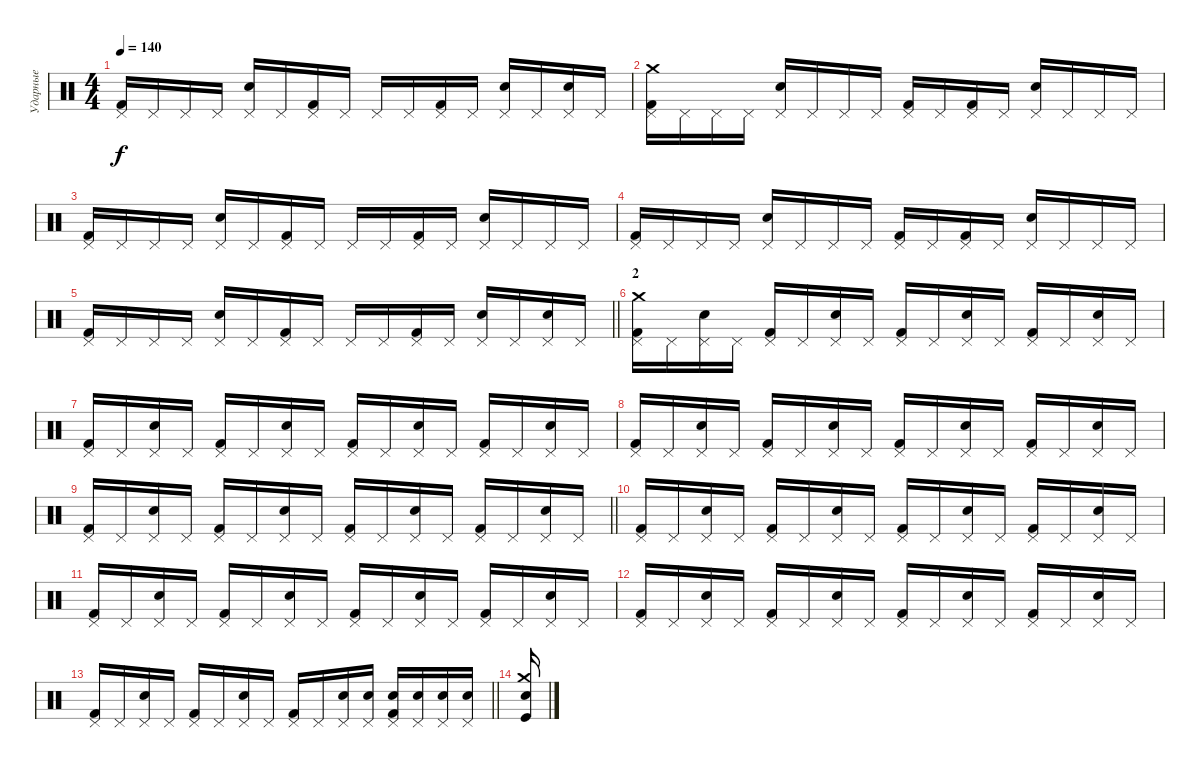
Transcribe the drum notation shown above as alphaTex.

\track ("Ударные" "Ударные") {instrument percussion}
\staff {score}
\articulation defaults
\ts (4 4)
\tempo 140
\clef neutral
\ks c
("Pedal Hi-Hat (hit)" "Kick (hit) 2").16{dy f} "Pedal Hi-Hat (hit)".16 "Pedal Hi-Hat (hit)".16 "Pedal Hi-Hat (hit)".16 ("Pedal Hi-Hat (hit)" "Electric Snare (hit)").16 "Pedal Hi-Hat (hit)".16 ("Pedal Hi-Hat (hit)" "Kick (hit) 2").16 "Pedal Hi-Hat (hit)".16 "Pedal Hi-Hat (hit)".16 "Pedal Hi-Hat (hit)".16 ("Pedal Hi-Hat (hit)" "Kick (hit) 2").16 "Pedal Hi-Hat (hit)".16 ("Pedal Hi-Hat (hit)" "Electric Snare (hit)").16 "Pedal Hi-Hat (hit)".16 ("Pedal Hi-Hat (hit)" "Electric Snare (hit)").16 "Pedal Hi-Hat (hit)".16 |
("Pedal Hi-Hat (hit)" "Kick (hit) 2" "Crash medium (hit)").16 "Pedal Hi-Hat (hit)".16 "Pedal Hi-Hat (hit)".16 "Pedal Hi-Hat (hit)".16 ("Pedal Hi-Hat (hit)" "Electric Snare (hit)").16 "Pedal Hi-Hat (hit)".16 "Pedal Hi-Hat (hit)".16 "Pedal Hi-Hat (hit)".16 ("Pedal Hi-Hat (hit)" "Kick (hit) 2").16 "Pedal Hi-Hat (hit)".16 ("Pedal Hi-Hat (hit)" "Kick (hit) 2").16 "Pedal Hi-Hat (hit)".16 ("Pedal Hi-Hat (hit)" "Electric Snare (hit)").16 "Pedal Hi-Hat (hit)".16 "Pedal Hi-Hat (hit)".16 "Pedal Hi-Hat (hit)".16 |
("Pedal Hi-Hat (hit)" "Kick (hit) 2").16 "Pedal Hi-Hat (hit)".16 "Pedal Hi-Hat (hit)".16 "Pedal Hi-Hat (hit)".16 ("Pedal Hi-Hat (hit)" "Electric Snare (hit)").16 "Pedal Hi-Hat (hit)".16 ("Pedal Hi-Hat (hit)" "Kick (hit) 2").16 "Pedal Hi-Hat (hit)".16 "Pedal Hi-Hat (hit)".16 "Pedal Hi-Hat (hit)".16 ("Pedal Hi-Hat (hit)" "Kick (hit) 2").16 "Pedal Hi-Hat (hit)".16 ("Pedal Hi-Hat (hit)" "Electric Snare (hit)").16 "Pedal Hi-Hat (hit)".16 "Pedal Hi-Hat (hit)".16 "Pedal Hi-Hat (hit)".16 |
("Pedal Hi-Hat (hit)" "Kick (hit) 2").16 "Pedal Hi-Hat (hit)".16 "Pedal Hi-Hat (hit)".16 "Pedal Hi-Hat (hit)".16 ("Pedal Hi-Hat (hit)" "Electric Snare (hit)").16 "Pedal Hi-Hat (hit)".16 "Pedal Hi-Hat (hit)".16 "Pedal Hi-Hat (hit)".16 ("Pedal Hi-Hat (hit)" "Kick (hit) 2").16 "Pedal Hi-Hat (hit)".16 ("Pedal Hi-Hat (hit)" "Kick (hit) 2").16 "Pedal Hi-Hat (hit)".16 ("Pedal Hi-Hat (hit)" "Electric Snare (hit)").16 "Pedal Hi-Hat (hit)".16 "Pedal Hi-Hat (hit)".16 "Pedal Hi-Hat (hit)".16 |
\barLineRight lightlight
("Pedal Hi-Hat (hit)" "Kick (hit) 2").16 "Pedal Hi-Hat (hit)".16 "Pedal Hi-Hat (hit)".16 "Pedal Hi-Hat (hit)".16 ("Pedal Hi-Hat (hit)" "Electric Snare (hit)").16 "Pedal Hi-Hat (hit)".16 ("Pedal Hi-Hat (hit)" "Kick (hit) 2").16 "Pedal Hi-Hat (hit)".16 "Pedal Hi-Hat (hit)".16 "Pedal Hi-Hat (hit)".16 ("Pedal Hi-Hat (hit)" "Kick (hit) 2").16 "Pedal Hi-Hat (hit)".16 ("Pedal Hi-Hat (hit)" "Electric Snare (hit)").16 "Pedal Hi-Hat (hit)".16 ("Pedal Hi-Hat (hit)" "Electric Snare (hit)").16 "Pedal Hi-Hat (hit)".16 |
\section ("" "2")
("Pedal Hi-Hat (hit)" "Crash medium (hit)" "Kick (hit) 2").16 "Pedal Hi-Hat (hit)".16 ("Pedal Hi-Hat (hit)" "Electric Snare (hit)").16 "Pedal Hi-Hat (hit)".16 ("Pedal Hi-Hat (hit)" "Kick (hit) 2").16 "Pedal Hi-Hat (hit)".16 ("Pedal Hi-Hat (hit)" "Electric Snare (hit)").16 "Pedal Hi-Hat (hit)".16 ("Pedal Hi-Hat (hit)" "Kick (hit) 2").16 "Pedal Hi-Hat (hit)".16 ("Pedal Hi-Hat (hit)" "Electric Snare (hit)").16 "Pedal Hi-Hat (hit)".16 ("Pedal Hi-Hat (hit)" "Kick (hit) 2").16 "Pedal Hi-Hat (hit)".16 ("Pedal Hi-Hat (hit)" "Electric Snare (hit)").16 "Pedal Hi-Hat (hit)".16 |
("Pedal Hi-Hat (hit)" "Kick (hit) 2").16 "Pedal Hi-Hat (hit)".16 ("Pedal Hi-Hat (hit)" "Electric Snare (hit)").16 "Pedal Hi-Hat (hit)".16 ("Pedal Hi-Hat (hit)" "Kick (hit) 2").16 "Pedal Hi-Hat (hit)".16 ("Pedal Hi-Hat (hit)" "Electric Snare (hit)").16 "Pedal Hi-Hat (hit)".16 ("Pedal Hi-Hat (hit)" "Kick (hit) 2").16 "Pedal Hi-Hat (hit)".16 ("Pedal Hi-Hat (hit)" "Electric Snare (hit)").16 "Pedal Hi-Hat (hit)".16 ("Pedal Hi-Hat (hit)" "Kick (hit) 2").16 "Pedal Hi-Hat (hit)".16 ("Pedal Hi-Hat (hit)" "Electric Snare (hit)").16 "Pedal Hi-Hat (hit)".16 |
("Pedal Hi-Hat (hit)" "Kick (hit) 2").16 "Pedal Hi-Hat (hit)".16 ("Pedal Hi-Hat (hit)" "Electric Snare (hit)").16 "Pedal Hi-Hat (hit)".16 ("Pedal Hi-Hat (hit)" "Kick (hit) 2").16 "Pedal Hi-Hat (hit)".16 ("Pedal Hi-Hat (hit)" "Electric Snare (hit)").16 "Pedal Hi-Hat (hit)".16 ("Pedal Hi-Hat (hit)" "Kick (hit) 2").16 "Pedal Hi-Hat (hit)".16 ("Pedal Hi-Hat (hit)" "Electric Snare (hit)").16 "Pedal Hi-Hat (hit)".16 ("Pedal Hi-Hat (hit)" "Kick (hit) 2").16 "Pedal Hi-Hat (hit)".16 ("Pedal Hi-Hat (hit)" "Electric Snare (hit)").16 "Pedal Hi-Hat (hit)".16 |
\barLineRight lightlight
("Pedal Hi-Hat (hit)" "Kick (hit) 2").16 "Pedal Hi-Hat (hit)".16 ("Pedal Hi-Hat (hit)" "Electric Snare (hit)").16 "Pedal Hi-Hat (hit)".16 ("Pedal Hi-Hat (hit)" "Kick (hit) 2").16 "Pedal Hi-Hat (hit)".16 ("Pedal Hi-Hat (hit)" "Electric Snare (hit)").16 "Pedal Hi-Hat (hit)".16 ("Pedal Hi-Hat (hit)" "Kick (hit) 2").16 "Pedal Hi-Hat (hit)".16 ("Pedal Hi-Hat (hit)" "Electric Snare (hit)").16 "Pedal Hi-Hat (hit)".16 ("Pedal Hi-Hat (hit)" "Kick (hit) 2").16 "Pedal Hi-Hat (hit)".16 ("Pedal Hi-Hat (hit)" "Electric Snare (hit)").16 "Pedal Hi-Hat (hit)".16 |
("Pedal Hi-Hat (hit)" "Kick (hit) 2").16 "Pedal Hi-Hat (hit)".16 ("Pedal Hi-Hat (hit)" "Electric Snare (hit)").16 "Pedal Hi-Hat (hit)".16 ("Pedal Hi-Hat (hit)" "Kick (hit) 2").16 "Pedal Hi-Hat (hit)".16 ("Pedal Hi-Hat (hit)" "Electric Snare (hit)").16 "Pedal Hi-Hat (hit)".16 ("Pedal Hi-Hat (hit)" "Kick (hit) 2").16 "Pedal Hi-Hat (hit)".16 ("Pedal Hi-Hat (hit)" "Electric Snare (hit)").16 "Pedal Hi-Hat (hit)".16 ("Pedal Hi-Hat (hit)" "Kick (hit) 2").16 "Pedal Hi-Hat (hit)".16 ("Pedal Hi-Hat (hit)" "Electric Snare (hit)").16 "Pedal Hi-Hat (hit)".16 |
("Pedal Hi-Hat (hit)" "Kick (hit) 2").16 "Pedal Hi-Hat (hit)".16 ("Pedal Hi-Hat (hit)" "Electric Snare (hit)").16 "Pedal Hi-Hat (hit)".16 ("Pedal Hi-Hat (hit)" "Kick (hit) 2").16 "Pedal Hi-Hat (hit)".16 ("Pedal Hi-Hat (hit)" "Electric Snare (hit)").16 "Pedal Hi-Hat (hit)".16 ("Pedal Hi-Hat (hit)" "Kick (hit) 2").16 "Pedal Hi-Hat (hit)".16 ("Pedal Hi-Hat (hit)" "Electric Snare (hit)").16 "Pedal Hi-Hat (hit)".16 ("Pedal Hi-Hat (hit)" "Kick (hit) 2").16 "Pedal Hi-Hat (hit)".16 ("Pedal Hi-Hat (hit)" "Electric Snare (hit)").16 "Pedal Hi-Hat (hit)".16 |
("Pedal Hi-Hat (hit)" "Kick (hit) 2").16 "Pedal Hi-Hat (hit)".16 ("Pedal Hi-Hat (hit)" "Electric Snare (hit)").16 "Pedal Hi-Hat (hit)".16 ("Pedal Hi-Hat (hit)" "Kick (hit) 2").16 "Pedal Hi-Hat (hit)".16 ("Pedal Hi-Hat (hit)" "Electric Snare (hit)").16 "Pedal Hi-Hat (hit)".16 ("Pedal Hi-Hat (hit)" "Kick (hit) 2").16 "Pedal Hi-Hat (hit)".16 ("Pedal Hi-Hat (hit)" "Electric Snare (hit)").16 "Pedal Hi-Hat (hit)".16 ("Pedal Hi-Hat (hit)" "Kick (hit) 2").16 "Pedal Hi-Hat (hit)".16 ("Pedal Hi-Hat (hit)" "Electric Snare (hit)").16 "Pedal Hi-Hat (hit)".16 |
\barLineRight lightlight
("Pedal Hi-Hat (hit)" "Kick (hit) 2").16 "Pedal Hi-Hat (hit)".16 ("Pedal Hi-Hat (hit)" "Electric Snare (hit)").16 "Pedal Hi-Hat (hit)".16 ("Pedal Hi-Hat (hit)" "Kick (hit) 2").16 "Pedal Hi-Hat (hit)".16 ("Pedal Hi-Hat (hit)" "Electric Snare (hit)").16 "Pedal Hi-Hat (hit)".16 ("Pedal Hi-Hat (hit)" "Kick (hit) 2").16 "Pedal Hi-Hat (hit)".16 ("Pedal Hi-Hat (hit)" "Electric Snare (hit)").16 ("Pedal Hi-Hat (hit)" "Electric Snare (hit)").16 ("Pedal Hi-Hat (hit)" "Kick (hit) 2" "Electric Snare (hit)").16 ("Pedal Hi-Hat (hit)" "Electric Snare (hit)").16 ("Pedal Hi-Hat (hit)" "Electric Snare (hit)").16 ("Pedal Hi-Hat (hit)" "Electric Snare (hit)").16 |
("Crash medium (hit)" "Electric Snare (hit)" "Kick (hit)").16
